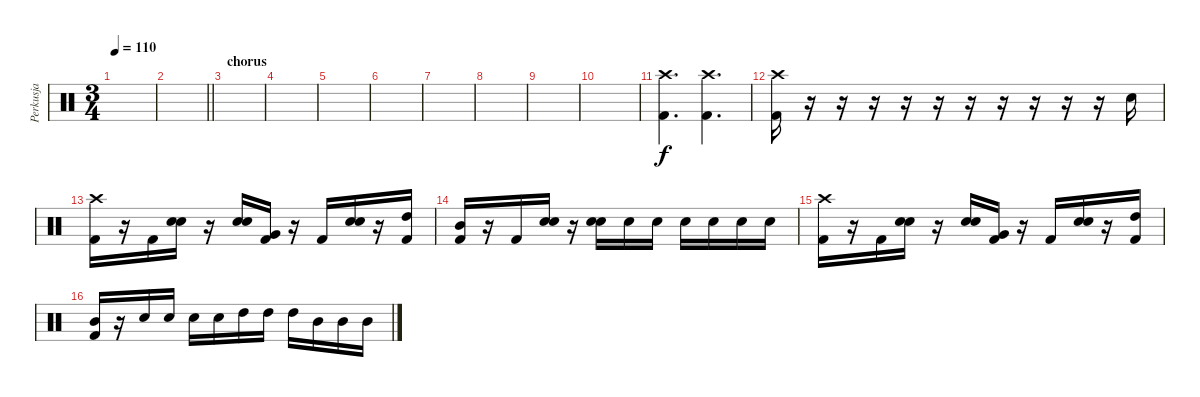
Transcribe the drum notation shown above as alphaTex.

\track ("Perkusja" "Perkusja") {instrument percussion}
\staff {score}
\articulation defaults
\ts (3 4)
\tempo 110
\clef neutral
\ks c
|
\barLineRight lightlight
|
\section ("" "chorus")
|
|
|
|
|
|
|
|
("Kick (hit) 2" "Crash high (hit)").4{d} ("Kick (hit) 2" "Crash high (hit)").4{d} |
("Kick (hit) 2" "Crash high (hit)").16 r.16 r.16 r.16 r.16 r.16 r.16 r.16 r.16 r.16 r.16 "Snare (hit) 2".16 |
("Kick (hit) 2" "Crash high (hit)").16 r.16 "Kick (hit) 2".16 ("Snare (hit) 2" "Hand Clap (hit)").16 r.16 ("Snare (hit) 2" "Hand Clap (hit)").16 ("Very Low Tom (hit)" "Kick (hit) 2").16 r.16 "Kick (hit) 2".16 ("Snare (hit) 2" "Hand Clap (hit)").16 r.16 ("Kick (hit) 2" "High Tom (hit)").16 |
("Kick (hit) 2" "Mid Tom (hit)").16 r.16 "Kick (hit) 2".16 ("Snare (hit) 2" "Hand Clap (hit)").16 r.16 ("Snare (hit) 2" "Hand Clap (hit)").16 "Snare (hit) 2".16 "Snare (hit) 2".16 "Snare (hit) 2".16 "Snare (hit) 2".16 "Snare (hit) 2".16 "Snare (hit) 2".16 |
("Kick (hit) 2" "Crash high (hit)").16 r.16 "Kick (hit) 2".16 ("Snare (hit) 2" "Hand Clap (hit)").16 r.16 ("Snare (hit) 2" "Hand Clap (hit)").16 ("Very Low Tom (hit)" "Kick (hit) 2").16 r.16 "Kick (hit) 2".16 ("Snare (hit) 2" "Hand Clap (hit)").16 r.16 ("Kick (hit) 2" "High Tom (hit)").16 |
("Kick (hit) 2" "Mid Tom (hit)").16 r.16 "Snare (hit) 2".16 "Snare (hit) 2".16 "Snare (hit) 2".16 "Snare (hit) 2".16 "High Tom (hit)".16 "High Tom (hit)".16 "High Tom (hit)".16 "Mid Tom (hit)".16 "Mid Tom (hit)".16 "Mid Tom (hit)".16
